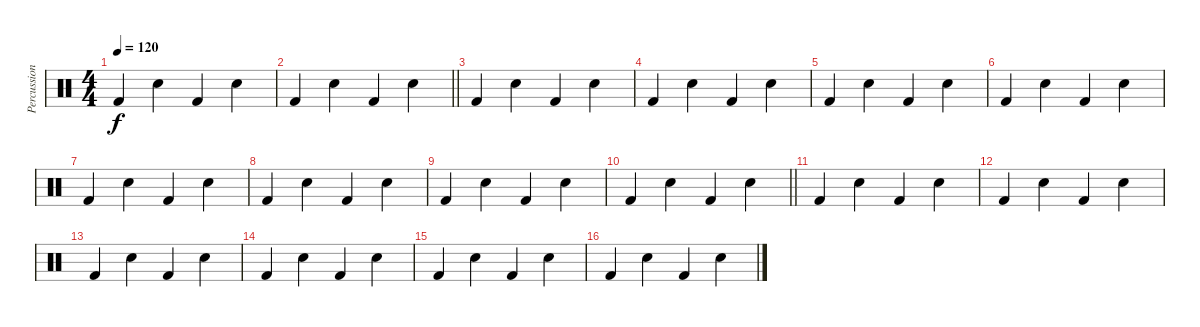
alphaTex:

\track ("Percussion" "Percussion") {instrument percussion}
\staff {score}
\articulation defaults
\ts (4 4)
\tempo 120
\clef neutral
\ks c "Kick (hit) 2".4{dy f} "Electric Snare (hit)".4 "Kick (hit) 2".4 "Electric Snare (hit)".4
|
\barLineRight lightlight "Kick (hit) 2".4 "Electric Snare (hit)".4 "Kick (hit) 2".4 "Electric Snare (hit)".4
|
"Kick (hit) 2".4 "Electric Snare (hit)".4 "Kick (hit) 2".4 "Electric Snare (hit)".4 |
"Kick (hit) 2".4 "Electric Snare (hit)".4 "Kick (hit) 2".4 "Electric Snare (hit)".4 |
"Kick (hit) 2".4 "Electric Snare (hit)".4 "Kick (hit) 2".4 "Electric Snare (hit)".4 |
"Kick (hit) 2".4 "Electric Snare (hit)".4 "Kick (hit) 2".4 "Electric Snare (hit)".4 |
"Kick (hit) 2".4 "Electric Snare (hit)".4 "Kick (hit) 2".4 "Electric Snare (hit)".4 |
"Kick (hit) 2".4 "Electric Snare (hit)".4 "Kick (hit) 2".4 "Electric Snare (hit)".4 |
"Kick (hit) 2".4 "Electric Snare (hit)".4 "Kick (hit) 2".4 "Electric Snare (hit)".4 |
\barLineRight lightlight "Kick (hit) 2".4 "Electric Snare (hit)".4 "Kick (hit) 2".4 "Electric Snare (hit)".4
|
"Kick (hit) 2".4 "Electric Snare (hit)".4 "Kick (hit) 2".4 "Electric Snare (hit)".4 |
"Kick (hit) 2".4 "Electric Snare (hit)".4 "Kick (hit) 2".4 "Electric Snare (hit)".4 |
"Kick (hit) 2".4 "Electric Snare (hit)".4 "Kick (hit) 2".4 "Electric Snare (hit)".4 |
"Kick (hit) 2".4 "Electric Snare (hit)".4 "Kick (hit) 2".4 "Electric Snare (hit)".4 |
"Kick (hit) 2".4 "Electric Snare (hit)".4 "Kick (hit) 2".4 "Electric Snare (hit)".4 |
"Kick (hit) 2".4 "Electric Snare (hit)".4 "Kick (hit) 2".4 "Electric Snare (hit)".4
